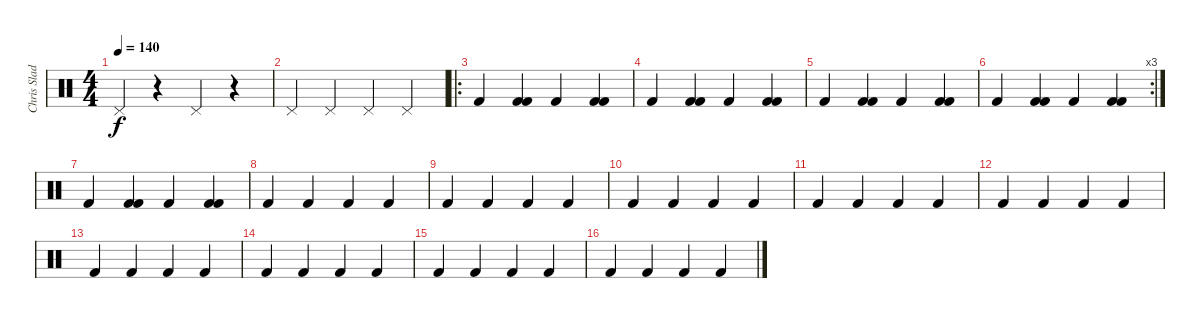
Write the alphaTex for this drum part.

\track ("Chris Slade" "Chris Slad") {instrument percussion}
\staff {score}
\articulation defaults
\ts (4 4)
\tempo 140
\clef neutral
\ks c "Pedal Hi-Hat (hit)".4{dy f}
r.4 "Pedal Hi-Hat (hit)".4 r.4 |
"Pedal Hi-Hat (hit)".4 "Pedal Hi-Hat (hit)".4 "Pedal Hi-Hat (hit)".4 "Pedal Hi-Hat (hit)".4 |
\ro "Kick (hit) 2".4
("Kick (hit) 2" "Kick (hit) 2").4 "Kick (hit) 2".4 ("Kick (hit) 2" "Kick (hit) 2").4 |
"Kick (hit) 2".4 ("Kick (hit) 2" "Kick (hit) 2").4 "Kick (hit) 2".4 ("Kick (hit) 2" "Kick (hit) 2").4 |
"Kick (hit) 2".4 ("Kick (hit) 2" "Kick (hit) 2").4 "Kick (hit) 2".4 ("Kick (hit) 2" "Kick (hit) 2").4 |
\rc 3 "Kick (hit) 2".4
("Kick (hit) 2" "Kick (hit) 2").4 "Kick (hit) 2".4 ("Kick (hit) 2" "Kick (hit) 2").4 |
"Kick (hit) 2".4 ("Kick (hit) 2" "Kick (hit) 2").4 "Kick (hit) 2".4 ("Kick (hit) 2" "Kick (hit) 2").4 |
"Kick (hit) 2".4 "Kick (hit) 2".4 "Kick (hit) 2".4 "Kick (hit) 2".4 |
"Kick (hit) 2".4 "Kick (hit) 2".4 "Kick (hit) 2".4 "Kick (hit) 2".4 |
"Kick (hit) 2".4 "Kick (hit) 2".4 "Kick (hit) 2".4 "Kick (hit) 2".4 |
"Kick (hit) 2".4 "Kick (hit) 2".4 "Kick (hit) 2".4 "Kick (hit) 2".4 |
"Kick (hit) 2".4 "Kick (hit) 2".4 "Kick (hit) 2".4 "Kick (hit) 2".4 |
"Kick (hit) 2".4 "Kick (hit) 2".4 "Kick (hit) 2".4 "Kick (hit) 2".4 |
"Kick (hit) 2".4 "Kick (hit) 2".4 "Kick (hit) 2".4 "Kick (hit) 2".4 |
"Kick (hit) 2".4 "Kick (hit) 2".4 "Kick (hit) 2".4 "Kick (hit) 2".4 |
"Kick (hit) 2".4 "Kick (hit) 2".4 "Kick (hit) 2".4 "Kick (hit) 2".4
